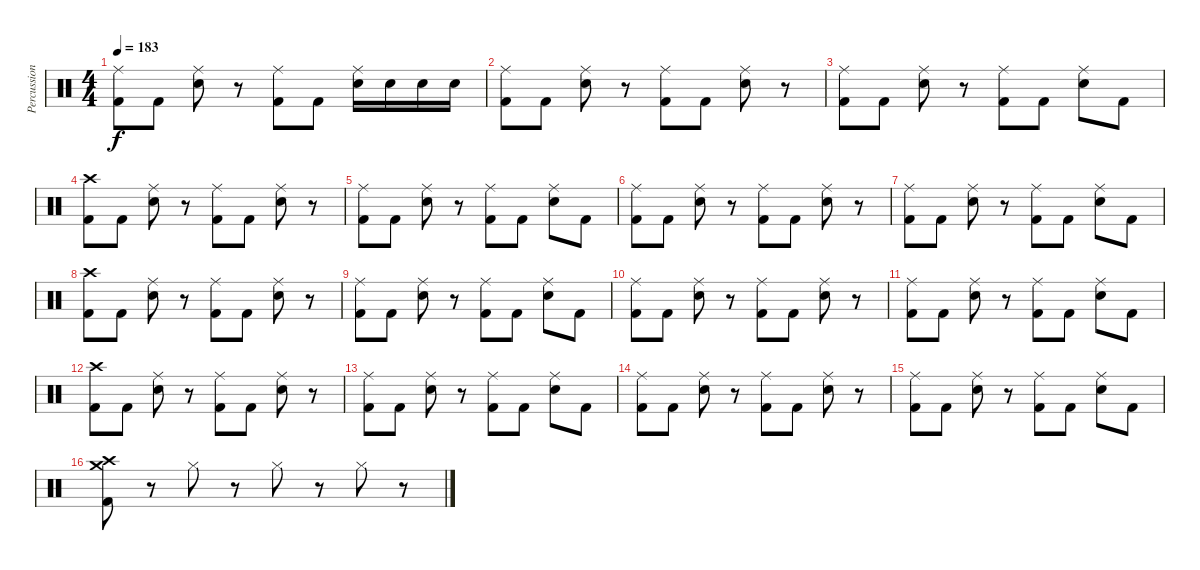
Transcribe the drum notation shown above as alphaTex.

\track ("Percussion" "Percussion") {instrument percussion}
\staff {score}
\articulation defaults
\ts (4 4)
\tempo 183
\clef neutral
\ks c
("Ride (middle)" "Kick (hit) 2").8{dy f} "Kick (hit) 2".8 ("Ride (middle)" "Electric Snare (hit)").8 r.8 ("Ride (middle)" "Kick (hit) 2").8 "Kick (hit) 2".8 ("Ride (middle)" "Electric Snare (hit)").16 "Electric Snare (hit)".16 "Electric Snare (hit)".16 "Electric Snare (hit)".16 |
("Ride (middle)" "Kick (hit) 2").8 "Kick (hit) 2".8 ("Ride (middle)" "Electric Snare (hit)").8 r.8 ("Ride (middle)" "Kick (hit) 2").8 "Kick (hit) 2".8 ("Ride (middle)" "Electric Snare (hit)").8 r.8 |
("Ride (middle)" "Kick (hit) 2").8 "Kick (hit) 2".8 ("Ride (middle)" "Electric Snare (hit)").8 r.8 ("Ride (middle)" "Kick (hit) 2").8 "Kick (hit) 2".8 ("Ride (middle)" "Electric Snare (hit)").8 "Kick (hit) 2".8 |
("Crash high (hit)" "Kick (hit) 2").8 "Kick (hit) 2".8 ("Ride (middle)" "Electric Snare (hit)").8 r.8 ("Ride (middle)" "Kick (hit) 2").8 "Kick (hit) 2".8 ("Ride (middle)" "Electric Snare (hit)").8 r.8 |
("Ride (middle)" "Kick (hit) 2").8 "Kick (hit) 2".8 ("Ride (middle)" "Electric Snare (hit)").8 r.8 ("Ride (middle)" "Kick (hit) 2").8 "Kick (hit) 2".8 ("Ride (middle)" "Electric Snare (hit)").8 "Kick (hit) 2".8 |
("Ride (middle)" "Kick (hit) 2").8 "Kick (hit) 2".8 ("Ride (middle)" "Electric Snare (hit)").8 r.8 ("Ride (middle)" "Kick (hit) 2").8 "Kick (hit) 2".8 ("Ride (middle)" "Electric Snare (hit)").8 r.8 |
("Ride (middle)" "Kick (hit) 2").8 "Kick (hit) 2".8 ("Ride (middle)" "Electric Snare (hit)").8 r.8 ("Ride (middle)" "Kick (hit) 2").8 "Kick (hit) 2".8 ("Ride (middle)" "Electric Snare (hit)").8 "Kick (hit) 2".8 |
("Crash high (hit)" "Kick (hit) 2").8 "Kick (hit) 2".8 ("Ride (middle)" "Electric Snare (hit)").8 r.8 ("Ride (middle)" "Kick (hit) 2").8 "Kick (hit) 2".8 ("Ride (middle)" "Electric Snare (hit)").8 r.8 |
("Ride (middle)" "Kick (hit) 2").8 "Kick (hit) 2".8 ("Ride (middle)" "Electric Snare (hit)").8 r.8 ("Ride (middle)" "Kick (hit) 2").8 "Kick (hit) 2".8 ("Ride (middle)" "Electric Snare (hit)").8 "Kick (hit) 2".8 |
("Ride (middle)" "Kick (hit) 2").8 "Kick (hit) 2".8 ("Ride (middle)" "Electric Snare (hit)").8 r.8 ("Ride (middle)" "Kick (hit) 2").8 "Kick (hit) 2".8 ("Ride (middle)" "Electric Snare (hit)").8 r.8 |
("Ride (middle)" "Kick (hit) 2").8 "Kick (hit) 2".8 ("Ride (middle)" "Electric Snare (hit)").8 r.8 ("Ride (middle)" "Kick (hit) 2").8 "Kick (hit) 2".8 ("Ride (middle)" "Electric Snare (hit)").8 "Kick (hit) 2".8 |
("Crash high (hit)" "Kick (hit) 2").8 "Kick (hit) 2".8 ("Ride (middle)" "Electric Snare (hit)").8 r.8 ("Ride (middle)" "Kick (hit) 2").8 "Kick (hit) 2".8 ("Ride (middle)" "Electric Snare (hit)").8 r.8 |
("Ride (middle)" "Kick (hit) 2").8 "Kick (hit) 2".8 ("Ride (middle)" "Electric Snare (hit)").8 r.8 ("Ride (middle)" "Kick (hit) 2").8 "Kick (hit) 2".8 ("Ride (middle)" "Electric Snare (hit)").8 "Kick (hit) 2".8 |
("Ride (middle)" "Kick (hit) 2").8 "Kick (hit) 2".8 ("Ride (middle)" "Electric Snare (hit)").8 r.8 ("Ride (middle)" "Kick (hit) 2").8 "Kick (hit) 2".8 ("Ride (middle)" "Electric Snare (hit)").8 r.8 |
("Ride (middle)" "Kick (hit) 2").8 "Kick (hit) 2".8 ("Ride (middle)" "Electric Snare (hit)").8 r.8 ("Ride (middle)" "Kick (hit) 2").8 "Kick (hit) 2".8 ("Ride (middle)" "Electric Snare (hit)").8 "Kick (hit) 2".8 |
("Crash high (hit)" "Crash medium (hit)" "Kick (hit) 2").8 r.8 "Hi-Hat (closed)".8 r.8 "Hi-Hat (closed)".8 r.8 "Hi-Hat (closed)".8 r.8
